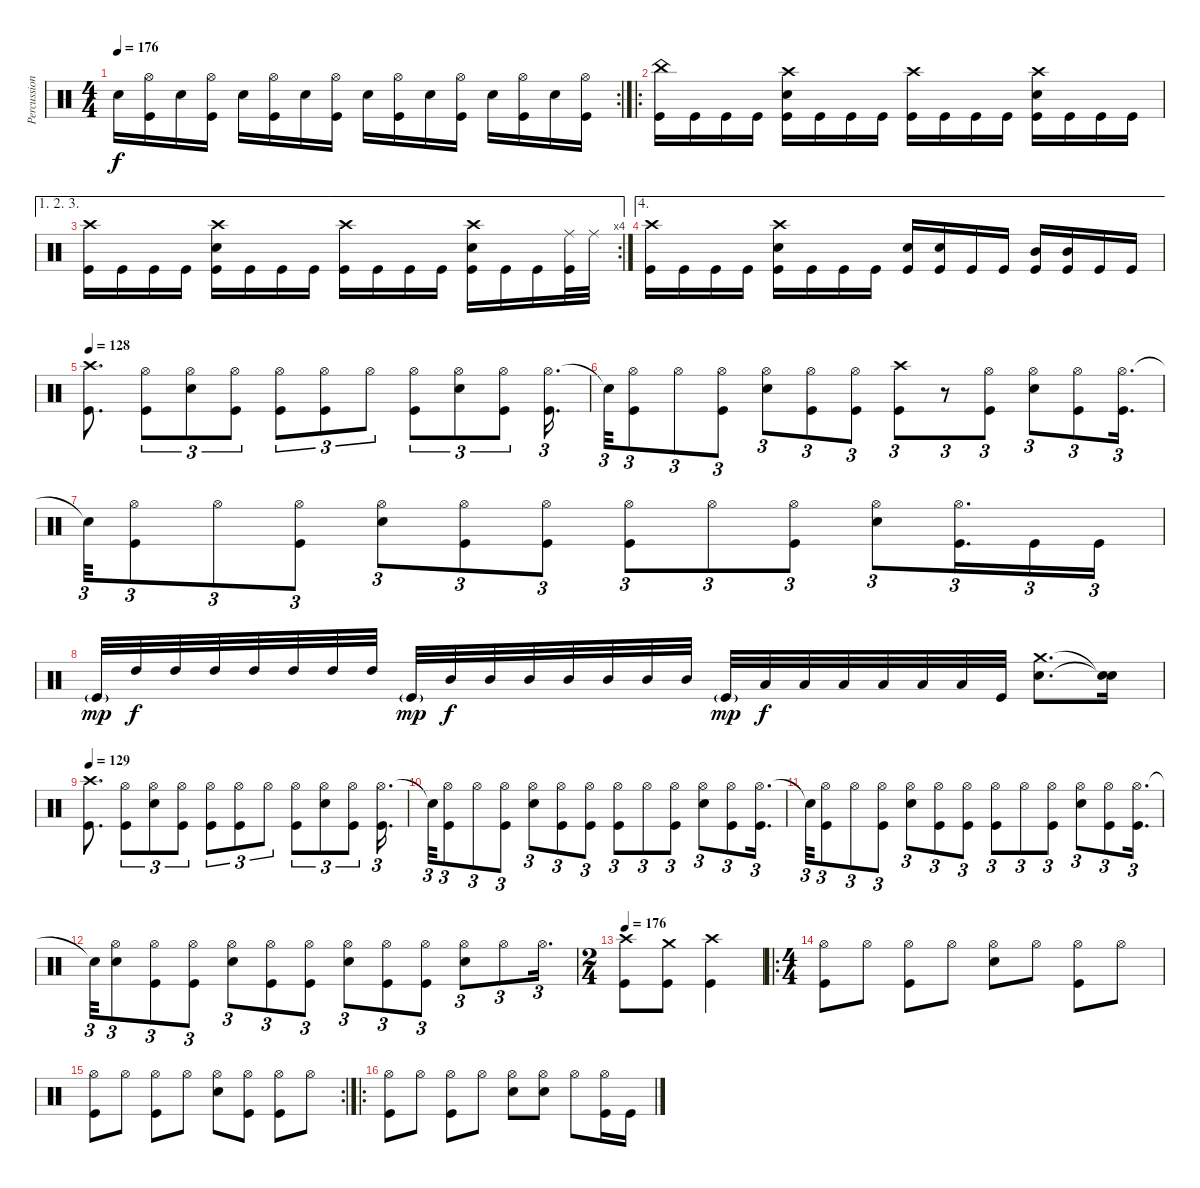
\track ("Percussions" "Percussion") {instrument percussion}
\staff {score}
\articulation defaults
\rc 2
\ts (4 4)
\tempo 176
\clef neutral
\ks c "Snare (hit) 2".16{dy f}
("Hi-Hat (open)" "Kick (hit)").16 "Snare (hit) 2".16 ("Hi-Hat (open)" "Kick (hit)").16 "Snare (hit) 2".16 ("Hi-Hat (open)" "Kick (hit)").16 "Snare (hit) 2".16 ("Hi-Hat (open)" "Kick (hit)").16 "Snare (hit) 2".16 ("Hi-Hat (open)" "Kick (hit)").16 "Snare (hit) 2".16 ("Hi-Hat (open)" "Kick (hit)").16 "Snare (hit) 2".16 ("Hi-Hat (open)" "Kick (hit)").16 "Snare (hit) 2".16 ("Hi-Hat (open)" "Kick (hit)").16 |
\ro
("China (hit)" "Kick (hit)").16 "Kick (hit)".16 "Kick (hit)".16 "Kick (hit)".16 ("Crash high (hit)" "Snare (hit) 2" "Kick (hit)").16 "Kick (hit)".16 "Kick (hit)".16 "Kick (hit)".16 ("Crash high (hit)" "Kick (hit)").16 "Kick (hit)".16 "Kick (hit)".16 "Kick (hit)".16 ("Crash high (hit)" "Snare (hit) 2" "Kick (hit)").16 "Kick (hit)".16 "Kick (hit)".16 "Kick (hit)".16 |
\ae (1 2 3)
\rc 4
("Crash high (hit)" "Kick (hit)").16 "Kick (hit)".16 "Kick (hit)".16 "Kick (hit)".16 ("Crash high (hit)" "Snare (hit) 2" "Kick (hit)").16 "Kick (hit)".16 "Kick (hit)".16 "Kick (hit)".16 ("Crash high (hit)" "Kick (hit)").16 "Kick (hit)".16 "Kick (hit)".16 "Kick (hit)".16 ("Crash high (hit)" "Snare (hit) 2" "Kick (hit)").16 "Kick (hit)".16 "Kick (hit)".16 ("Ride (middle)" "Kick (hit)").32 "Ride (middle)".32 |
\ae 4
("Crash high (hit)" "Kick (hit)").16 "Kick (hit)".16 "Kick (hit)".16 "Kick (hit)".16 ("Crash high (hit)" "Snare (hit) 2" "Kick (hit)").16 "Kick (hit)".16 "Kick (hit)".16 "Kick (hit)".16 ("Snare (hit) 2" "Kick (hit)").16 ("Snare (hit) 2" "Kick (hit)").16 "Kick (hit)".16 "Kick (hit)".16 ("Mid Tom (hit)" "Kick (hit)").16 ("Mid Tom (hit)" "Kick (hit)").16 "Kick (hit)".16 "Kick (hit)".16 |
\tempo 128
("Crash high (hit)" "Kick (hit)").8{d} ("Hi-Hat (open)" "Kick (hit)").8{tu (3 2)} ("Hi-Hat (open)" "Snare (hit) 2").8{tu (3 2)} ("Hi-Hat (open)" "Kick (hit)").8{tu (3 2)} ("Hi-Hat (open)" "Kick (hit)").8{tu (3 2)} ("Hi-Hat (open)" "Kick (hit)").8{tu (3 2)} "Hi-Hat (open)".8{tu (3 2)} ("Hi-Hat (open)" "Kick (hit)").8{tu (3 2)} ("Hi-Hat (open)" "Snare (hit) 2").8{tu (3 2)} ("Hi-Hat (open)" "Kick (hit)").8{tu (3 2)} ("Hi-Hat (open)" "Kick (hit)").16{d tu (3 2)} |
"Snare (hit)"{t}.32{tu (3 2)} ("Hi-Hat (open)" "Kick (hit)").8{tu (3 2)} "Hi-Hat (open)".8{tu (3 2)} ("Hi-Hat (open)" "Kick (hit)").8{tu (3 2)} ("Hi-Hat (open)" "Snare (hit) 2").8{tu (3 2)} ("Hi-Hat (open)" "Kick (hit)").8{tu (3 2)} ("Hi-Hat (open)" "Kick (hit)").8{tu (3 2)} ("Crash high (hit)" "Kick (hit)").8{tu (3 2)} r.8{tu (3 2)} ("Hi-Hat (open)" "Kick (hit)").8{tu (3 2)} ("Hi-Hat (open)" "Snare (hit) 2").8{tu (3 2)} ("Hi-Hat (open)" "Kick (hit)").8{tu (3 2)} ("Hi-Hat (open)" "Kick (hit)").16{d tu (3 2)} |
"Snare (hit)"{t}.32{tu (3 2)} ("Hi-Hat (open)" "Kick (hit)").8{tu (3 2)} "Hi-Hat (open)".8{tu (3 2)} ("Hi-Hat (open)" "Kick (hit)").8{tu (3 2)} ("Hi-Hat (open)" "Snare (hit) 2").8{tu (3 2)} ("Hi-Hat (open)" "Kick (hit)").8{tu (3 2)} ("Hi-Hat (open)" "Kick (hit)").8{tu (3 2)} ("Hi-Hat (open)" "Kick (hit)").8{tu (3 2)} "Hi-Hat (open)".8{tu (3 2)} ("Hi-Hat (open)" "Kick (hit)").8{tu (3 2)} ("Hi-Hat (open)" "Snare (hit) 2").8{tu (3 2)} ("Hi-Hat (open)" "Kick (hit)").16{d tu (3 2)} "Kick (hit)".16{tu (3 2)} "Kick (hit)".16{tu (3 2)} |
"Kick (hit)"{g}.32{dy mp} "High Tom (hit)".32{dy f} "High Tom (hit)".32 "High Tom (hit)".32 "High Tom (hit)".32 "High Tom (hit)".32 "High Tom (hit)".32 "High Tom (hit)".32 "Kick (hit)"{g}.32{dy mp} "Mid Tom (hit)".32{dy f} "Mid Tom (hit)".32 "Mid Tom (hit)".32 "Mid Tom (hit)".32 "Mid Tom (hit)".32 "Mid Tom (hit)".32 "Mid Tom (hit)".32 "Kick (hit)"{g}.32{dy mp} "Low Tom (hit)".32{dy f} "Low Tom (hit)".32 "Low Tom (hit)".32 "Low Tom (hit)".32 "Low Tom (hit)".32 "Low Tom (hit)".32 "Kick (hit)".32 ("Crash medium (hit)" "Snare (hit) 2").8{d} ("Snare (hit)"{t} "Snare (hit)"{t}).16 |
\tempo 129
("Crash high (hit)" "Kick (hit)").8{d} ("Hi-Hat (open)" "Kick (hit)").8{tu (3 2)} ("Hi-Hat (open)" "Snare (hit) 2").8{tu (3 2)} ("Hi-Hat (open)" "Kick (hit)").8{tu (3 2)} ("Hi-Hat (open)" "Kick (hit)").8{tu (3 2)} ("Hi-Hat (open)" "Kick (hit)").8{tu (3 2)} "Hi-Hat (open)".8{tu (3 2)} ("Hi-Hat (open)" "Kick (hit)").8{tu (3 2)} ("Hi-Hat (open)" "Snare (hit) 2").8{tu (3 2)} ("Hi-Hat (open)" "Kick (hit)").8{tu (3 2)} ("Hi-Hat (open)" "Kick (hit)").16{d tu (3 2)} |
"Snare (hit)"{t}.32{tu (3 2)} ("Hi-Hat (open)" "Kick (hit)").8{tu (3 2)} "Hi-Hat (open)".8{tu (3 2)} ("Hi-Hat (open)" "Kick (hit)").8{tu (3 2)} ("Hi-Hat (open)" "Snare (hit) 2").8{tu (3 2)} ("Hi-Hat (open)" "Kick (hit)").8{tu (3 2)} ("Hi-Hat (open)" "Kick (hit)").8{tu (3 2)} ("Hi-Hat (open)" "Kick (hit)").8{tu (3 2)} "Hi-Hat (open)".8{tu (3 2)} ("Hi-Hat (open)" "Kick (hit)").8{tu (3 2)} ("Hi-Hat (open)" "Snare (hit) 2").8{tu (3 2)} ("Hi-Hat (open)" "Kick (hit)").8{tu (3 2)} ("Hi-Hat (open)" "Kick (hit)").16{d tu (3 2)} |
"Snare (hit)"{t}.32{tu (3 2)} ("Hi-Hat (open)" "Kick (hit)").8{tu (3 2)} "Hi-Hat (open)".8{tu (3 2)} ("Hi-Hat (open)" "Kick (hit)").8{tu (3 2)} ("Hi-Hat (open)" "Snare (hit) 2").8{tu (3 2)} ("Hi-Hat (open)" "Kick (hit)").8{tu (3 2)} ("Hi-Hat (open)" "Kick (hit)").8{tu (3 2)} ("Hi-Hat (open)" "Kick (hit)").8{tu (3 2)} "Hi-Hat (open)".8{tu (3 2)} ("Hi-Hat (open)" "Kick (hit)").8{tu (3 2)} ("Hi-Hat (open)" "Snare (hit) 2").8{tu (3 2)} ("Hi-Hat (open)" "Kick (hit)").8{tu (3 2)} ("Hi-Hat (open)" "Kick (hit)").16{d tu (3 2)} |
"Snare (hit)"{t}.32{tu (3 2)} ("Hi-Hat (open)" "Snare (hit) 2").8{tu (3 2)} ("Hi-Hat (open)" "Kick (hit)").8{tu (3 2)} ("Hi-Hat (open)" "Kick (hit)").8{tu (3 2)} ("Hi-Hat (open)" "Snare (hit) 2").8{tu (3 2)} ("Hi-Hat (open)" "Kick (hit)").8{tu (3 2)} ("Hi-Hat (open)" "Kick (hit)").8{tu (3 2)} ("Hi-Hat (open)" "Snare (hit) 2").8{tu (3 2)} ("Hi-Hat (open)" "Kick (hit)").8{tu (3 2)} ("Hi-Hat (open)" "Kick (hit)").8{tu (3 2)} ("Hi-Hat (open)" "Snare (hit) 2").8{tu (3 2)} "Hi-Hat (open)".8{tu (3 2)} "Hi-Hat (open)".16{d tu (3 2)} |
\ts (2 4)
\tempo 176
("Crash high (hit)" "Kick (hit)").8 ("Crash medium (hit)" "Kick (hit)").8 ("Crash high (hit)" "Kick (hit)").4 |
\ro
\ts (4 4)
("Hi-Hat (open)" "Kick (hit)").8 "Hi-Hat (open)".8 ("Hi-Hat (open)" "Kick (hit)").8 "Hi-Hat (open)".8 ("Hi-Hat (open)" "Snare (hit) 2").8 "Hi-Hat (open)".8 ("Hi-Hat (open)" "Kick (hit)").8 "Hi-Hat (open)".8 |
\rc 2
("Hi-Hat (open)" "Kick (hit)").8 "Hi-Hat (open)".8 ("Hi-Hat (open)" "Kick (hit)").8 "Hi-Hat (open)".8 ("Hi-Hat (open)" "Snare (hit) 2").8 ("Hi-Hat (open)" "Kick (hit)").8 ("Hi-Hat (open)" "Kick (hit)").8 "Hi-Hat (open)".8 |
\ro
("Hi-Hat (open)" "Kick (hit)").8 "Hi-Hat (open)".8 ("Hi-Hat (open)" "Kick (hit)").8 "Hi-Hat (open)".8 ("Hi-Hat (open)" "Snare (hit) 2").8 ("Hi-Hat (open)" "Snare (hit) 2").8 "Hi-Hat (open)".8 ("Hi-Hat (open)" "Kick (hit)").16 "Kick (hit)".16
